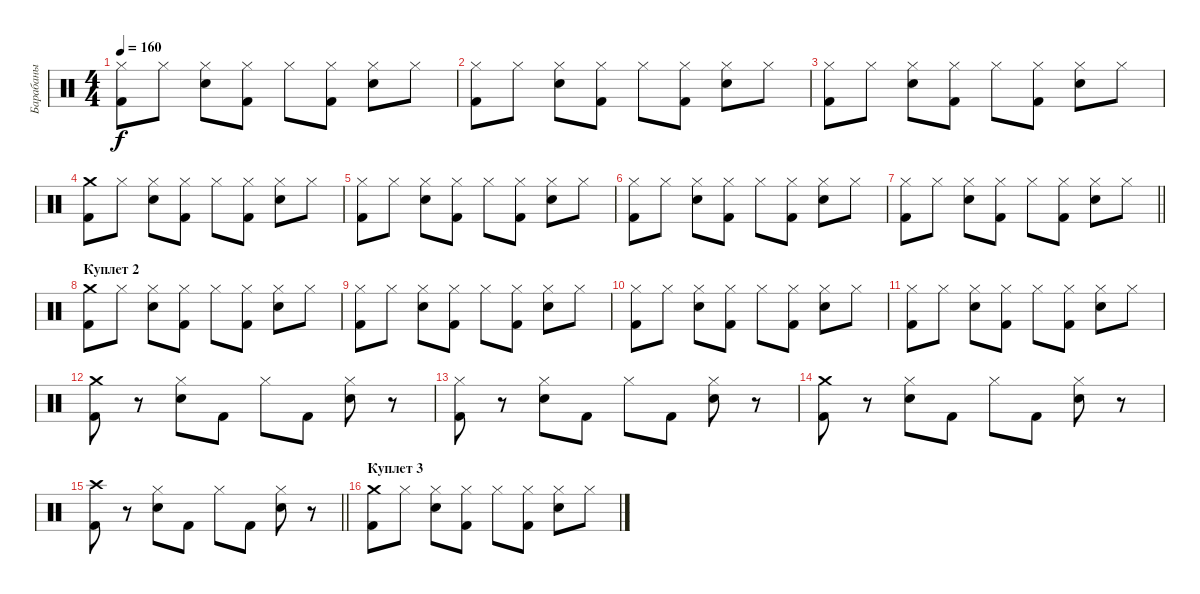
\track ("Барабаны" "Барабаны") {instrument percussion}
\staff {score}
\articulation defaults
\ts (4 4)
\tempo 160
\clef neutral
\ks c
("Hi-Hat (closed)" "Kick (hit) 2").8{dy f} "Hi-Hat (closed)".8 ("Hi-Hat (closed)" "Snare (hit) 2").8 ("Hi-Hat (closed)" "Kick (hit) 2").8 "Hi-Hat (closed)".8 ("Hi-Hat (closed)" "Kick (hit) 2").8 ("Hi-Hat (closed)" "Snare (hit) 2").8 "Hi-Hat (closed)".8 |
("Hi-Hat (closed)" "Kick (hit) 2").8 "Hi-Hat (closed)".8 ("Hi-Hat (closed)" "Snare (hit) 2").8 ("Hi-Hat (closed)" "Kick (hit) 2").8 "Hi-Hat (closed)".8 ("Hi-Hat (closed)" "Kick (hit) 2").8 ("Hi-Hat (closed)" "Snare (hit) 2").8 "Hi-Hat (closed)".8 |
("Hi-Hat (closed)" "Kick (hit) 2").8 "Hi-Hat (closed)".8 ("Hi-Hat (closed)" "Snare (hit) 2").8 ("Hi-Hat (closed)" "Kick (hit) 2").8 "Hi-Hat (closed)".8 ("Hi-Hat (closed)" "Kick (hit) 2").8 ("Hi-Hat (closed)" "Snare (hit) 2").8 "Hi-Hat (closed)".8 |
("Crash medium (hit)" "Kick (hit) 2").8 "Hi-Hat (closed)".8 ("Hi-Hat (closed)" "Snare (hit) 2").8 ("Hi-Hat (closed)" "Kick (hit) 2").8 "Hi-Hat (closed)".8 ("Hi-Hat (closed)" "Kick (hit) 2").8 ("Hi-Hat (closed)" "Snare (hit) 2").8 "Hi-Hat (closed)".8 |
("Hi-Hat (closed)" "Kick (hit) 2").8 "Hi-Hat (closed)".8 ("Hi-Hat (closed)" "Snare (hit) 2").8 ("Hi-Hat (closed)" "Kick (hit) 2").8 "Hi-Hat (closed)".8 ("Hi-Hat (closed)" "Kick (hit) 2").8 ("Hi-Hat (closed)" "Snare (hit) 2").8 "Hi-Hat (closed)".8 |
("Hi-Hat (closed)" "Kick (hit) 2").8 "Hi-Hat (closed)".8 ("Hi-Hat (closed)" "Snare (hit) 2").8 ("Hi-Hat (closed)" "Kick (hit) 2").8 "Hi-Hat (closed)".8 ("Hi-Hat (closed)" "Kick (hit) 2").8 ("Hi-Hat (closed)" "Snare (hit) 2").8 "Hi-Hat (closed)".8 |
\barLineRight lightlight
("Hi-Hat (closed)" "Kick (hit) 2").8 "Hi-Hat (closed)".8 ("Hi-Hat (closed)" "Snare (hit) 2").8 ("Hi-Hat (closed)" "Kick (hit) 2").8 "Hi-Hat (closed)".8 ("Hi-Hat (closed)" "Kick (hit) 2").8 ("Hi-Hat (closed)" "Snare (hit) 2").8 "Hi-Hat (closed)".8 |
\section ("" "Куплет 2")
("Crash medium (hit)" "Kick (hit) 2").8 "Hi-Hat (closed)".8 ("Hi-Hat (closed)" "Snare (hit) 2").8 ("Hi-Hat (closed)" "Kick (hit) 2").8 "Hi-Hat (closed)".8 ("Hi-Hat (closed)" "Kick (hit) 2").8 ("Hi-Hat (closed)" "Snare (hit) 2").8 "Hi-Hat (closed)".8 |
("Hi-Hat (closed)" "Kick (hit) 2").8 "Hi-Hat (closed)".8 ("Hi-Hat (closed)" "Snare (hit) 2").8 ("Hi-Hat (closed)" "Kick (hit) 2").8 "Hi-Hat (closed)".8 ("Hi-Hat (closed)" "Kick (hit) 2").8 ("Hi-Hat (closed)" "Snare (hit) 2").8 "Hi-Hat (closed)".8 |
("Hi-Hat (closed)" "Kick (hit) 2").8 "Hi-Hat (closed)".8 ("Hi-Hat (closed)" "Snare (hit) 2").8 ("Hi-Hat (closed)" "Kick (hit) 2").8 "Hi-Hat (closed)".8 ("Hi-Hat (closed)" "Kick (hit) 2").8 ("Hi-Hat (closed)" "Snare (hit) 2").8 "Hi-Hat (closed)".8 |
("Hi-Hat (closed)" "Kick (hit) 2").8 "Hi-Hat (closed)".8 ("Hi-Hat (closed)" "Snare (hit) 2").8 ("Hi-Hat (closed)" "Kick (hit) 2").8 "Hi-Hat (closed)".8 ("Hi-Hat (closed)" "Kick (hit) 2").8 ("Hi-Hat (closed)" "Snare (hit) 2").8 "Hi-Hat (closed)".8 |
("Crash medium (hit)" "Kick (hit) 2").8 r.8 ("Hi-Hat (closed)" "Snare (hit) 2").8 "Kick (hit) 2".8 "Hi-Hat (closed)".8 "Kick (hit) 2".8 ("Hi-Hat (closed)" "Snare (hit) 2").8 r.8 |
("Hi-Hat (closed)" "Kick (hit) 2").8 r.8 ("Hi-Hat (closed)" "Snare (hit) 2").8 "Kick (hit) 2".8 "Hi-Hat (closed)".8 "Kick (hit) 2".8 ("Hi-Hat (closed)" "Snare (hit) 2").8 r.8 |
("Crash medium (hit)" "Kick (hit) 2").8 r.8 ("Hi-Hat (closed)" "Snare (hit) 2").8 "Kick (hit) 2".8 "Hi-Hat (closed)".8 "Kick (hit) 2".8 ("Hi-Hat (closed)" "Snare (hit) 2").8 r.8 |
\barLineRight lightlight
("Crash high (hit)" "Kick (hit) 2").8 r.8 ("Hi-Hat (closed)" "Snare (hit) 2").8 "Kick (hit) 2".8 "Hi-Hat (closed)".8 "Kick (hit) 2".8 ("Hi-Hat (closed)" "Snare (hit) 2").8 r.8 |
\section ("" "Куплет 3")
("Crash medium (hit)" "Kick (hit) 2").8 "Hi-Hat (closed)".8 ("Hi-Hat (closed)" "Snare (hit) 2").8 ("Hi-Hat (closed)" "Kick (hit) 2").8 "Hi-Hat (closed)".8 ("Hi-Hat (closed)" "Kick (hit) 2").8 ("Hi-Hat (closed)" "Snare (hit) 2").8 "Hi-Hat (closed)".8
